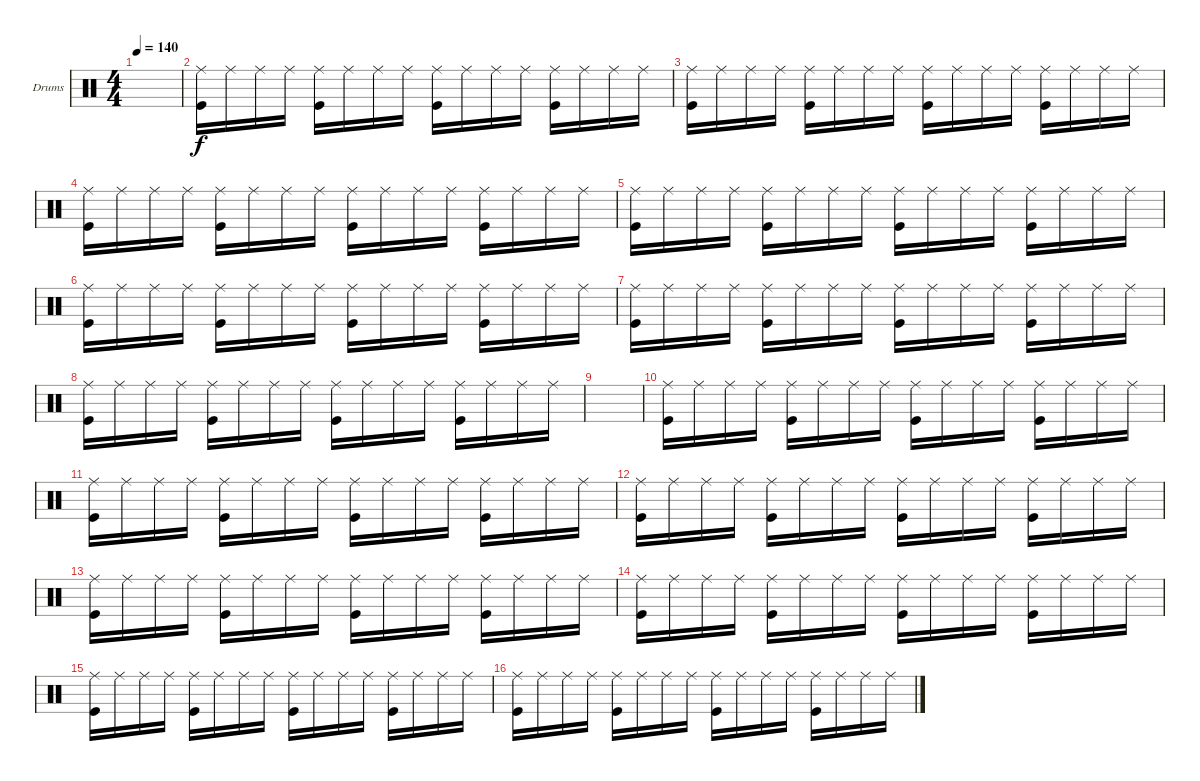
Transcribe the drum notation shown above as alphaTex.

\defaultSystemsLayout 4
\bracketExtendMode groupsimilarinstruments
\firstSystemTrackNameOrientation horizontal
\otherSystemsTrackNameOrientation horizontal
\track ("Drumkit" "Drums") {instrument percussion}
\staff {score}
\articulation defaults
\ts (4 4)
\tempo 140
\clef neutral
\ks c
|
("Ride (middle)" "Kick (hit)").16 "Ride (middle)".16 "Ride (middle)".16 "Ride (middle)".16 ("Ride (middle)" "Kick (hit)").16 "Ride (middle)".16 "Ride (middle)".16 "Ride (middle)".16 ("Ride (middle)" "Kick (hit)").16 "Ride (middle)".16 "Ride (middle)".16 "Ride (middle)".16 ("Ride (middle)" "Kick (hit)").16 "Ride (middle)".16 "Ride (middle)".16 "Ride (middle)".16 |
("Ride (middle)" "Kick (hit)").16 "Ride (middle)".16 "Ride (middle)".16 "Ride (middle)".16 ("Ride (middle)" "Kick (hit)").16 "Ride (middle)".16 "Ride (middle)".16 "Ride (middle)".16 ("Ride (middle)" "Kick (hit)").16 "Ride (middle)".16 "Ride (middle)".16 "Ride (middle)".16 ("Ride (middle)" "Kick (hit)").16 "Ride (middle)".16 "Ride (middle)".16 "Ride (middle)".16 |
("Ride (middle)" "Kick (hit)").16 "Ride (middle)".16 "Ride (middle)".16 "Ride (middle)".16 ("Ride (middle)" "Kick (hit)").16 "Ride (middle)".16 "Ride (middle)".16 "Ride (middle)".16 ("Ride (middle)" "Kick (hit)").16 "Ride (middle)".16 "Ride (middle)".16 "Ride (middle)".16 ("Ride (middle)" "Kick (hit)").16 "Ride (middle)".16 "Ride (middle)".16 "Ride (middle)".16 |
("Ride (middle)" "Kick (hit)").16 "Ride (middle)".16 "Ride (middle)".16 "Ride (middle)".16 ("Ride (middle)" "Kick (hit)").16 "Ride (middle)".16 "Ride (middle)".16 "Ride (middle)".16 ("Ride (middle)" "Kick (hit)").16 "Ride (middle)".16 "Ride (middle)".16 "Ride (middle)".16 ("Ride (middle)" "Kick (hit)").16 "Ride (middle)".16 "Ride (middle)".16 "Ride (middle)".16 |
("Ride (middle)" "Kick (hit)").16 "Ride (middle)".16 "Ride (middle)".16 "Ride (middle)".16 ("Ride (middle)" "Kick (hit)").16 "Ride (middle)".16 "Ride (middle)".16 "Ride (middle)".16 ("Ride (middle)" "Kick (hit)").16 "Ride (middle)".16 "Ride (middle)".16 "Ride (middle)".16 ("Ride (middle)" "Kick (hit)").16 "Ride (middle)".16 "Ride (middle)".16 "Ride (middle)".16 |
("Ride (middle)" "Kick (hit)").16 "Ride (middle)".16 "Ride (middle)".16 "Ride (middle)".16 ("Ride (middle)" "Kick (hit)").16 "Ride (middle)".16 "Ride (middle)".16 "Ride (middle)".16 ("Ride (middle)" "Kick (hit)").16 "Ride (middle)".16 "Ride (middle)".16 "Ride (middle)".16 ("Ride (middle)" "Kick (hit)").16 "Ride (middle)".16 "Ride (middle)".16 "Ride (middle)".16 |
("Ride (middle)" "Kick (hit)").16 "Ride (middle)".16 "Ride (middle)".16 "Ride (middle)".16 ("Ride (middle)" "Kick (hit)").16 "Ride (middle)".16 "Ride (middle)".16 "Ride (middle)".16 ("Ride (middle)" "Kick (hit)").16 "Ride (middle)".16 "Ride (middle)".16 "Ride (middle)".16 ("Ride (middle)" "Kick (hit)").16 "Ride (middle)".16 "Ride (middle)".16 "Ride (middle)".16 |
|
("Ride (middle)" "Kick (hit)").16 "Ride (middle)".16 "Ride (middle)".16 "Ride (middle)".16 ("Ride (middle)" "Kick (hit)").16 "Ride (middle)".16 "Ride (middle)".16 "Ride (middle)".16 ("Ride (middle)" "Kick (hit)").16 "Ride (middle)".16 "Ride (middle)".16 "Ride (middle)".16 ("Ride (middle)" "Kick (hit)").16 "Ride (middle)".16 "Ride (middle)".16 "Ride (middle)".16 |
("Ride (middle)" "Kick (hit)").16 "Ride (middle)".16 "Ride (middle)".16 "Ride (middle)".16 ("Ride (middle)" "Kick (hit)").16 "Ride (middle)".16 "Ride (middle)".16 "Ride (middle)".16 ("Ride (middle)" "Kick (hit)").16 "Ride (middle)".16 "Ride (middle)".16 "Ride (middle)".16 ("Ride (middle)" "Kick (hit)").16 "Ride (middle)".16 "Ride (middle)".16 "Ride (middle)".16 |
("Ride (middle)" "Kick (hit)").16 "Ride (middle)".16 "Ride (middle)".16 "Ride (middle)".16 ("Ride (middle)" "Kick (hit)").16 "Ride (middle)".16 "Ride (middle)".16 "Ride (middle)".16 ("Ride (middle)" "Kick (hit)").16 "Ride (middle)".16 "Ride (middle)".16 "Ride (middle)".16 ("Ride (middle)" "Kick (hit)").16 "Ride (middle)".16 "Ride (middle)".16 "Ride (middle)".16 |
("Ride (middle)" "Kick (hit)").16 "Ride (middle)".16 "Ride (middle)".16 "Ride (middle)".16 ("Ride (middle)" "Kick (hit)").16 "Ride (middle)".16 "Ride (middle)".16 "Ride (middle)".16 ("Ride (middle)" "Kick (hit)").16 "Ride (middle)".16 "Ride (middle)".16 "Ride (middle)".16 ("Ride (middle)" "Kick (hit)").16 "Ride (middle)".16 "Ride (middle)".16 "Ride (middle)".16 |
("Ride (middle)" "Kick (hit)").16 "Ride (middle)".16 "Ride (middle)".16 "Ride (middle)".16 ("Ride (middle)" "Kick (hit)").16 "Ride (middle)".16 "Ride (middle)".16 "Ride (middle)".16 ("Ride (middle)" "Kick (hit)").16 "Ride (middle)".16 "Ride (middle)".16 "Ride (middle)".16 ("Ride (middle)" "Kick (hit)").16 "Ride (middle)".16 "Ride (middle)".16 "Ride (middle)".16 |
("Ride (middle)" "Kick (hit)").16 "Ride (middle)".16 "Ride (middle)".16 "Ride (middle)".16 ("Ride (middle)" "Kick (hit)").16 "Ride (middle)".16 "Ride (middle)".16 "Ride (middle)".16 ("Ride (middle)" "Kick (hit)").16 "Ride (middle)".16 "Ride (middle)".16 "Ride (middle)".16 ("Ride (middle)" "Kick (hit)").16 "Ride (middle)".16 "Ride (middle)".16 "Ride (middle)".16 |
("Ride (middle)" "Kick (hit)").16 "Ride (middle)".16 "Ride (middle)".16 "Ride (middle)".16 ("Ride (middle)" "Kick (hit)").16 "Ride (middle)".16 "Ride (middle)".16 "Ride (middle)".16 ("Ride (middle)" "Kick (hit)").16 "Ride (middle)".16 "Ride (middle)".16 "Ride (middle)".16 ("Ride (middle)" "Kick (hit)").16 "Ride (middle)".16 "Ride (middle)".16 "Ride (middle)".16
